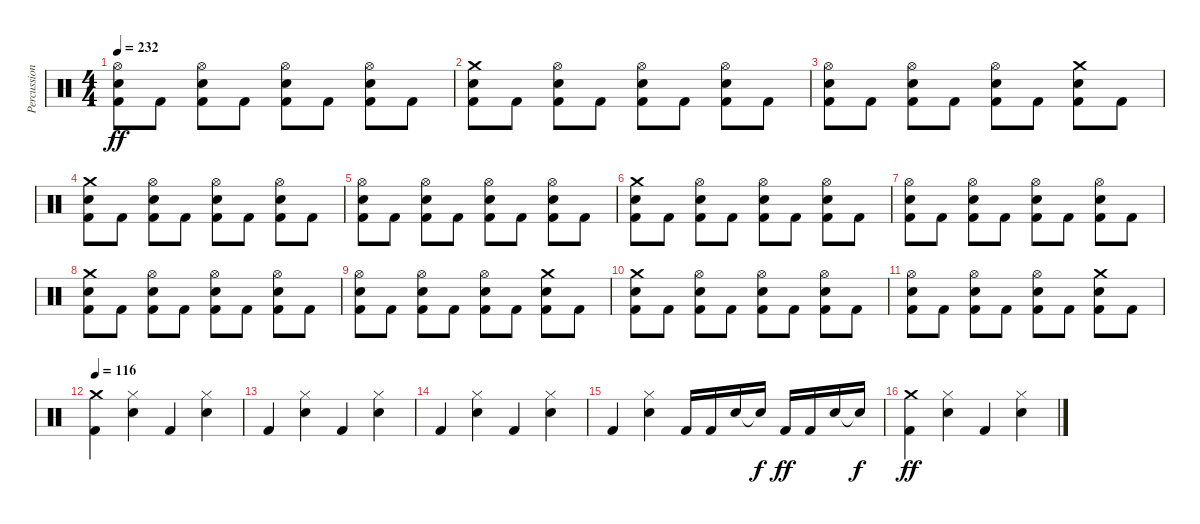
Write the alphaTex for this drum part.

\track ("Percussion" "Percussion") {instrument percussion}
\staff {score}
\articulation defaults
\ts (4 4)
\tempo 232
\clef neutral
\ks c
("Hi-Hat (open)" "Snare (hit) 2" "Kick (hit) 2").8{dy ff} "Kick (hit) 2".8 ("Hi-Hat (open)" "Snare (hit) 2" "Kick (hit) 2").8 "Kick (hit) 2".8 ("Hi-Hat (open)" "Snare (hit) 2" "Kick (hit) 2").8 "Kick (hit) 2".8 ("Hi-Hat (open)" "Snare (hit) 2" "Kick (hit) 2").8 "Kick (hit) 2".8 |
("Crash medium (hit)" "Snare (hit) 2" "Kick (hit) 2").8 "Kick (hit) 2".8 ("Hi-Hat (open)" "Snare (hit) 2" "Kick (hit) 2").8 "Kick (hit) 2".8 ("Hi-Hat (open)" "Snare (hit) 2" "Kick (hit) 2").8 "Kick (hit) 2".8 ("Hi-Hat (open)" "Snare (hit) 2" "Kick (hit) 2").8 "Kick (hit) 2".8 |
("Hi-Hat (open)" "Snare (hit) 2" "Kick (hit) 2").8 "Kick (hit) 2".8 ("Hi-Hat (open)" "Snare (hit) 2" "Kick (hit) 2").8 "Kick (hit) 2".8 ("Hi-Hat (open)" "Snare (hit) 2" "Kick (hit) 2").8 "Kick (hit) 2".8 ("Crash medium (hit)" "Snare (hit) 2" "Kick (hit) 2").8 "Kick (hit) 2".8 |
("Crash medium (hit)" "Snare (hit) 2" "Kick (hit) 2").8 "Kick (hit) 2".8 ("Hi-Hat (open)" "Snare (hit) 2" "Kick (hit) 2").8 "Kick (hit) 2".8 ("Hi-Hat (open)" "Snare (hit) 2" "Kick (hit) 2").8 "Kick (hit) 2".8 ("Hi-Hat (open)" "Snare (hit) 2" "Kick (hit) 2").8 "Kick (hit) 2".8 |
("Hi-Hat (open)" "Snare (hit) 2" "Kick (hit) 2").8 "Kick (hit) 2".8 ("Hi-Hat (open)" "Snare (hit) 2" "Kick (hit) 2").8 "Kick (hit) 2".8 ("Hi-Hat (open)" "Snare (hit) 2" "Kick (hit) 2").8 "Kick (hit) 2".8 ("Hi-Hat (open)" "Snare (hit) 2" "Kick (hit) 2").8 "Kick (hit) 2".8 |
("Crash medium (hit)" "Snare (hit) 2" "Kick (hit) 2").8 "Kick (hit) 2".8 ("Hi-Hat (open)" "Snare (hit) 2" "Kick (hit) 2").8 "Kick (hit) 2".8 ("Hi-Hat (open)" "Snare (hit) 2" "Kick (hit) 2").8 "Kick (hit) 2".8 ("Hi-Hat (open)" "Snare (hit) 2" "Kick (hit) 2").8 "Kick (hit) 2".8 |
("Hi-Hat (open)" "Snare (hit) 2" "Kick (hit) 2").8 "Kick (hit) 2".8 ("Hi-Hat (open)" "Snare (hit) 2" "Kick (hit) 2").8 "Kick (hit) 2".8 ("Hi-Hat (open)" "Snare (hit) 2" "Kick (hit) 2").8 "Kick (hit) 2".8 ("Hi-Hat (open)" "Snare (hit) 2" "Kick (hit) 2").8 "Kick (hit) 2".8 |
("Crash medium (hit)" "Snare (hit) 2" "Kick (hit) 2").8 "Kick (hit) 2".8 ("Hi-Hat (open)" "Snare (hit) 2" "Kick (hit) 2").8 "Kick (hit) 2".8 ("Hi-Hat (open)" "Snare (hit) 2" "Kick (hit) 2").8 "Kick (hit) 2".8 ("Hi-Hat (open)" "Snare (hit) 2" "Kick (hit) 2").8 "Kick (hit) 2".8 |
("Hi-Hat (open)" "Snare (hit) 2" "Kick (hit) 2").8 "Kick (hit) 2".8 ("Hi-Hat (open)" "Snare (hit) 2" "Kick (hit) 2").8 "Kick (hit) 2".8 ("Hi-Hat (open)" "Snare (hit) 2" "Kick (hit) 2").8 "Kick (hit) 2".8 ("Crash medium (hit)" "Snare (hit) 2" "Kick (hit) 2").8 "Kick (hit) 2".8 |
("Crash medium (hit)" "Snare (hit) 2" "Kick (hit) 2").8 "Kick (hit) 2".8 ("Hi-Hat (open)" "Snare (hit) 2" "Kick (hit) 2").8 "Kick (hit) 2".8 ("Hi-Hat (open)" "Snare (hit) 2" "Kick (hit) 2").8 "Kick (hit) 2".8 ("Hi-Hat (open)" "Snare (hit) 2" "Kick (hit) 2").8 "Kick (hit) 2".8 |
("Hi-Hat (open)" "Snare (hit) 2" "Kick (hit) 2").8 "Kick (hit) 2".8 ("Hi-Hat (open)" "Snare (hit) 2" "Kick (hit) 2").8 "Kick (hit) 2".8 ("Hi-Hat (open)" "Snare (hit) 2" "Kick (hit) 2").8 "Kick (hit) 2".8 ("Crash medium (hit)" "Snare (hit) 2" "Kick (hit) 2").8 "Kick (hit) 2".8 |
\tempo 116
("Crash medium (hit)" "Kick (hit) 2").4 ("Hi-Hat (closed)" "Snare (hit) 2").4 "Kick (hit) 2".4 ("Hi-Hat (closed)" "Snare (hit) 2").4 |
"Kick (hit) 2".4 ("Hi-Hat (closed)" "Snare (hit) 2").4 "Kick (hit) 2".4 ("Hi-Hat (closed)" "Snare (hit) 2").4 |
"Kick (hit) 2".4 ("Hi-Hat (closed)" "Snare (hit) 2").4 "Kick (hit) 2".4 ("Hi-Hat (closed)" "Snare (hit) 2").4 |
"Kick (hit) 2".4 ("Hi-Hat (closed)" "Snare (hit) 2").4 "Kick (hit) 2".16 "Kick (hit) 2".16 "Snare (hit) 2".16 "Snare (hit)"{t}.16{dy f} "Kick (hit) 2".16{dy ff} "Kick (hit) 2".16 "Snare (hit) 2".16 "Snare (hit)"{t}.16{dy f} |
("Crash medium (hit)" "Kick (hit) 2").4{dy ff} ("Hi-Hat (closed)" "Snare (hit) 2").4 "Kick (hit) 2".4 ("Hi-Hat (closed)" "Snare (hit) 2").4
